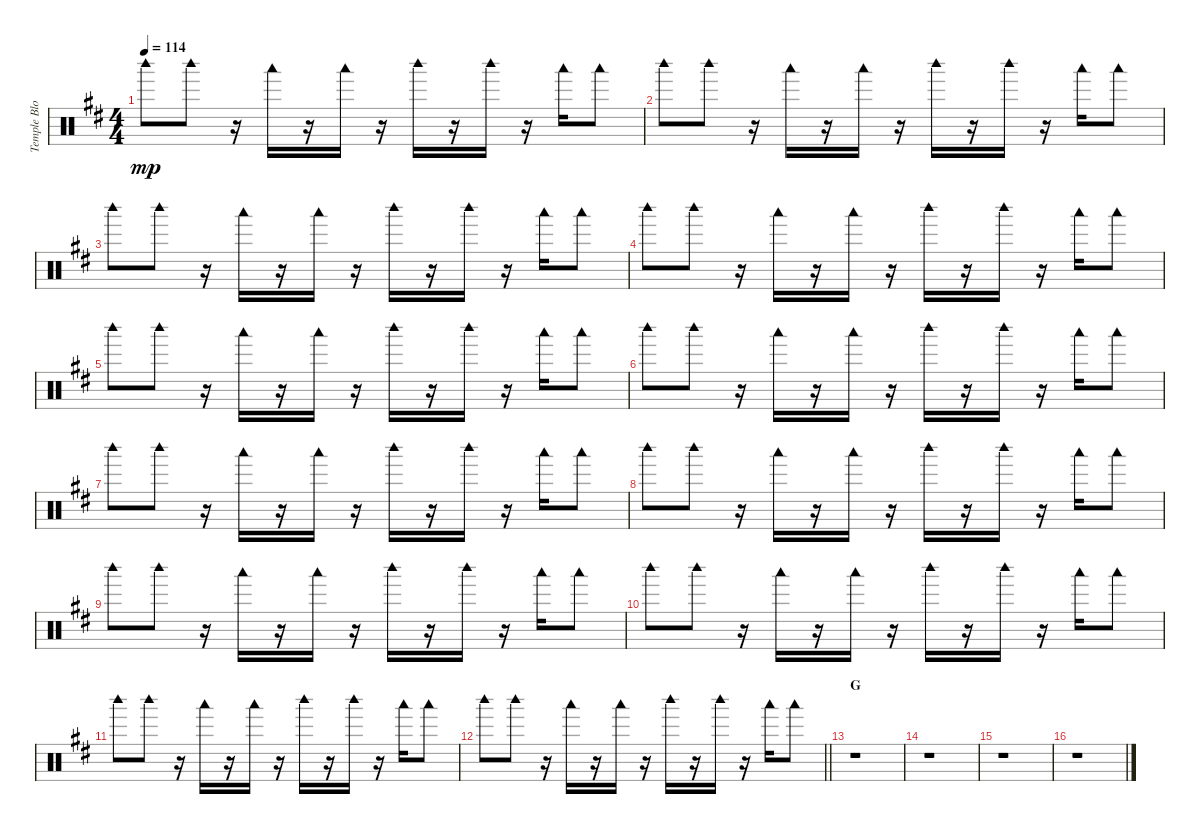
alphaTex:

\track ("Temple Block" "Temple Blo") {instrument percussion}
\staff {score}
\articulation defaults
\ts (4 4)
\tempo 114
\clef neutral
\ks d "Woodblock high (hit)".8{dy mp} "Woodblock high (hit)".8
r.16 "Woodblock low (hit)".16 r.16 "Woodblock low (hit)".16 r.16 "Woodblock high (hit)".16 r.16 "Woodblock high (hit)".16 r.16 "Woodblock low (hit)".16 "Woodblock low (hit)".8 |
"Woodblock high (hit)".8 "Woodblock high (hit)".8 r.16 "Woodblock low (hit)".16 r.16 "Woodblock low (hit)".16 r.16 "Woodblock high (hit)".16 r.16 "Woodblock high (hit)".16 r.16 "Woodblock low (hit)".16 "Woodblock low (hit)".8 |
"Woodblock high (hit)".8 "Woodblock high (hit)".8 r.16 "Woodblock low (hit)".16 r.16 "Woodblock low (hit)".16 r.16 "Woodblock high (hit)".16 r.16 "Woodblock high (hit)".16 r.16 "Woodblock low (hit)".16 "Woodblock low (hit)".8 |
"Woodblock high (hit)".8 "Woodblock high (hit)".8 r.16 "Woodblock low (hit)".16 r.16 "Woodblock low (hit)".16 r.16 "Woodblock high (hit)".16 r.16 "Woodblock high (hit)".16 r.16 "Woodblock low (hit)".16 "Woodblock low (hit)".8 |
"Woodblock high (hit)".8 "Woodblock high (hit)".8 r.16 "Woodblock low (hit)".16 r.16 "Woodblock low (hit)".16 r.16 "Woodblock high (hit)".16 r.16 "Woodblock high (hit)".16 r.16 "Woodblock low (hit)".16 "Woodblock low (hit)".8 |
"Woodblock high (hit)".8 "Woodblock high (hit)".8 r.16 "Woodblock low (hit)".16 r.16 "Woodblock low (hit)".16 r.16 "Woodblock high (hit)".16 r.16 "Woodblock high (hit)".16 r.16 "Woodblock low (hit)".16 "Woodblock low (hit)".8 |
"Woodblock high (hit)".8 "Woodblock high (hit)".8 r.16 "Woodblock low (hit)".16 r.16 "Woodblock low (hit)".16 r.16 "Woodblock high (hit)".16 r.16 "Woodblock high (hit)".16 r.16 "Woodblock low (hit)".16 "Woodblock low (hit)".8 |
"Woodblock high (hit)".8 "Woodblock high (hit)".8 r.16 "Woodblock low (hit)".16 r.16 "Woodblock low (hit)".16 r.16 "Woodblock high (hit)".16 r.16 "Woodblock high (hit)".16 r.16 "Woodblock low (hit)".16 "Woodblock low (hit)".8 |
"Woodblock high (hit)".8 "Woodblock high (hit)".8 r.16 "Woodblock low (hit)".16 r.16 "Woodblock low (hit)".16 r.16 "Woodblock high (hit)".16 r.16 "Woodblock high (hit)".16 r.16 "Woodblock low (hit)".16 "Woodblock low (hit)".8 |
"Woodblock high (hit)".8 "Woodblock high (hit)".8 r.16 "Woodblock low (hit)".16 r.16 "Woodblock low (hit)".16 r.16 "Woodblock high (hit)".16 r.16 "Woodblock high (hit)".16 r.16 "Woodblock low (hit)".16 "Woodblock low (hit)".8 |
"Woodblock high (hit)".8 "Woodblock high (hit)".8 r.16 "Woodblock low (hit)".16 r.16 "Woodblock low (hit)".16 r.16 "Woodblock high (hit)".16 r.16 "Woodblock high (hit)".16 r.16 "Woodblock low (hit)".16 "Woodblock low (hit)".8 |
\barLineRight lightlight "Woodblock high (hit)".8 "Woodblock high (hit)".8
r.16 "Woodblock low (hit)".16 r.16 "Woodblock low (hit)".16 r.16 "Woodblock high (hit)".16 r.16 "Woodblock high (hit)".16 r.16 "Woodblock low (hit)".16 "Woodblock low (hit)".8 |
\section ("" "G")
r.1 |
r.1 |
r.1 |
r.1
